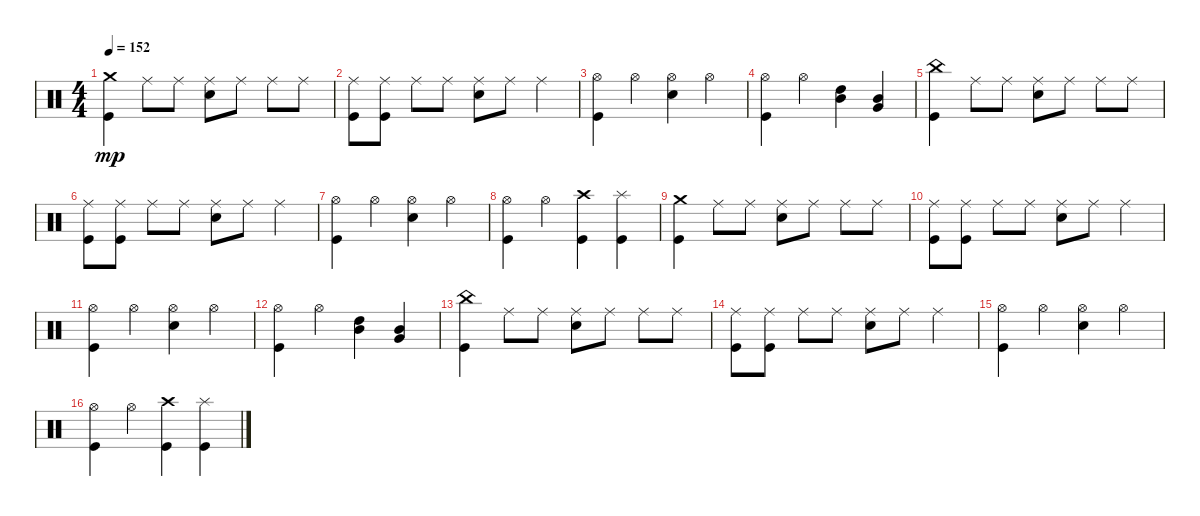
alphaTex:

\track "" {instrument percussion}
\staff {score}
\articulation defaults
\ts (4 4)
\tempo 152
\clef neutral
\ks c
("Kick (hit)" "Crash medium (hit)").4{dy mp} "Ride (middle)".8 "Ride (middle)".8 ("Ride (middle)" "Snare (hit) 2").8 "Ride (middle)".8 "Ride (middle)".8 "Ride (middle)".8 |
("Kick (hit)" "Ride (middle)").8 ("Kick (hit)" "Ride (middle)").8 "Ride (middle)".8 "Ride (middle)".8 ("Snare (hit) 2" "Ride (middle)").8 "Ride (middle)".8 "Ride (middle)".4 |
("Hi-Hat (open)" "Kick (hit)").4 "Hi-Hat (open)".4 ("Snare (hit) 2" "Hi-Hat (open)").4 "Hi-Hat (open)".4 |
("Hi-Hat (open)" "Kick (hit)").4 "Hi-Hat (open)".4 ("Mid Tom (hit)" "High Tom (hit)").4 ("Mid Tom (hit)" "Very Low Tom (hit)").4 |
("Kick (hit)" "China (hit)").4 "Ride (middle)".8 "Ride (middle)".8 ("Ride (middle)" "Snare (hit) 2").8 "Ride (middle)".8 "Ride (middle)".8 "Ride (middle)".8 |
("Kick (hit)" "Ride (middle)").8 ("Kick (hit)" "Ride (middle)").8 "Ride (middle)".8 "Ride (middle)".8 ("Snare (hit) 2" "Ride (middle)").8 "Ride (middle)".8 "Ride (middle)".4 |
("Hi-Hat (open)" "Kick (hit)").4 "Hi-Hat (open)".4 ("Snare (hit) 2" "Hi-Hat (open)").4 "Hi-Hat (open)".4 |
("Hi-Hat (open)" "Kick (hit)").4 "Hi-Hat (open)".4 ("Crash high (hit)" "Kick (hit)").4 ("Kick (hit)" "Splash (hit)").4 |
("Kick (hit)" "Crash medium (hit)").4 "Ride (middle)".8 "Ride (middle)".8 ("Ride (middle)" "Snare (hit) 2").8 "Ride (middle)".8 "Ride (middle)".8 "Ride (middle)".8 |
("Kick (hit)" "Ride (middle)").8 ("Kick (hit)" "Ride (middle)").8 "Ride (middle)".8 "Ride (middle)".8 ("Snare (hit) 2" "Ride (middle)").8 "Ride (middle)".8 "Ride (middle)".4 |
("Hi-Hat (open)" "Kick (hit)").4 "Hi-Hat (open)".4 ("Snare (hit) 2" "Hi-Hat (open)").4 "Hi-Hat (open)".4 |
("Hi-Hat (open)" "Kick (hit)").4 "Hi-Hat (open)".4 ("Mid Tom (hit)" "High Tom (hit)").4 ("Mid Tom (hit)" "Very Low Tom (hit)").4 |
("Kick (hit)" "China (hit)").4 "Ride (middle)".8 "Ride (middle)".8 ("Ride (middle)" "Snare (hit) 2").8 "Ride (middle)".8 "Ride (middle)".8 "Ride (middle)".8 |
("Kick (hit)" "Ride (middle)").8 ("Kick (hit)" "Ride (middle)").8 "Ride (middle)".8 "Ride (middle)".8 ("Snare (hit) 2" "Ride (middle)").8 "Ride (middle)".8 "Ride (middle)".4 |
("Hi-Hat (open)" "Kick (hit)").4 "Hi-Hat (open)".4 ("Snare (hit) 2" "Hi-Hat (open)").4 "Hi-Hat (open)".4 |
("Hi-Hat (open)" "Kick (hit)").4 "Hi-Hat (open)".4 ("Crash high (hit)" "Kick (hit)").4 ("Kick (hit)" "Splash (hit)").4
